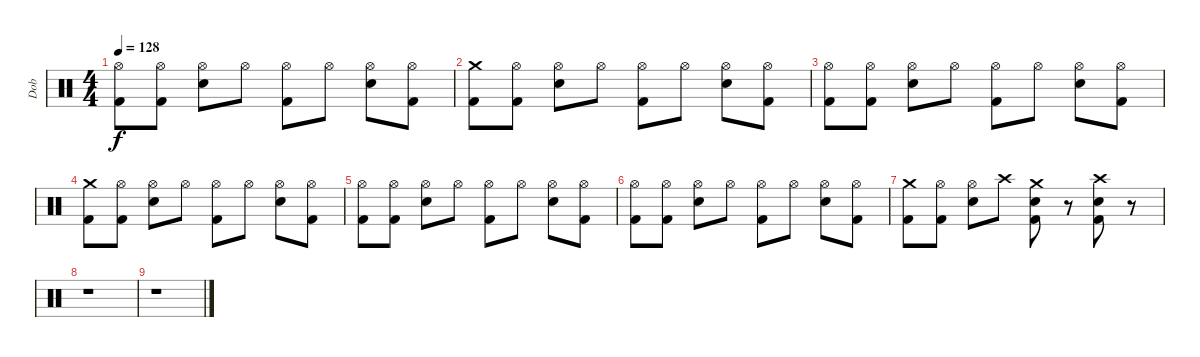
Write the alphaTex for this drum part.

\track ("Dob" "Dob") {instrument percussion}
\staff {score}
\articulation defaults
\ts (4 4)
\tempo 128
\clef neutral
\ks c
("Hi-Hat (open)" "Kick (hit) 2").8{dy f} ("Hi-Hat (open)" "Kick (hit) 2").8 ("Hi-Hat (open)" "Snare (hit) 2").8 "Hi-Hat (open)".8 ("Hi-Hat (open)" "Kick (hit) 2").8 "Hi-Hat (open)".8 ("Hi-Hat (open)" "Snare (hit) 2").8 ("Hi-Hat (open)" "Kick (hit) 2").8 |
("Crash medium (hit)" "Kick (hit) 2").8 ("Hi-Hat (open)" "Kick (hit) 2").8 ("Hi-Hat (open)" "Snare (hit) 2").8 "Hi-Hat (open)".8 ("Hi-Hat (open)" "Kick (hit) 2").8 "Hi-Hat (open)".8 ("Hi-Hat (open)" "Snare (hit) 2").8 ("Hi-Hat (open)" "Kick (hit) 2").8 |
("Hi-Hat (open)" "Kick (hit) 2").8 ("Hi-Hat (open)" "Kick (hit) 2").8 ("Hi-Hat (open)" "Snare (hit) 2").8 "Hi-Hat (open)".8 ("Hi-Hat (open)" "Kick (hit) 2").8 "Hi-Hat (open)".8 ("Hi-Hat (open)" "Snare (hit) 2").8 ("Hi-Hat (open)" "Kick (hit) 2").8 |
("Crash medium (hit)" "Kick (hit) 2").8 ("Hi-Hat (open)" "Kick (hit) 2").8 ("Hi-Hat (open)" "Snare (hit) 2").8 "Hi-Hat (open)".8 ("Hi-Hat (open)" "Kick (hit) 2").8 "Hi-Hat (open)".8 ("Hi-Hat (open)" "Snare (hit) 2").8 ("Hi-Hat (open)" "Kick (hit) 2").8 |
("Hi-Hat (open)" "Kick (hit) 2").8 ("Hi-Hat (open)" "Kick (hit) 2").8 ("Hi-Hat (open)" "Snare (hit) 2").8 "Hi-Hat (open)".8 ("Hi-Hat (open)" "Kick (hit) 2").8 "Hi-Hat (open)".8 ("Hi-Hat (open)" "Snare (hit) 2").8 ("Hi-Hat (open)" "Kick (hit) 2").8 |
("Hi-Hat (open)" "Kick (hit) 2").8 ("Hi-Hat (open)" "Kick (hit) 2").8 ("Hi-Hat (open)" "Snare (hit) 2").8 "Hi-Hat (open)".8 ("Hi-Hat (open)" "Kick (hit) 2").8 "Hi-Hat (open)".8 ("Hi-Hat (open)" "Snare (hit) 2").8 ("Hi-Hat (open)" "Kick (hit) 2").8 |
("Crash medium (hit)" "Kick (hit) 2").8 ("Hi-Hat (open)" "Kick (hit) 2").8 ("Hi-Hat (open)" "Snare (hit) 2").8 "Crash high (hit)".8 ("Crash medium (hit)" "Snare (hit) 2" "Kick (hit) 2").8 r.8 ("Crash high (hit)" "Snare (hit) 2" "Kick (hit) 2").8 r.8 |
r.1 |
r.1
